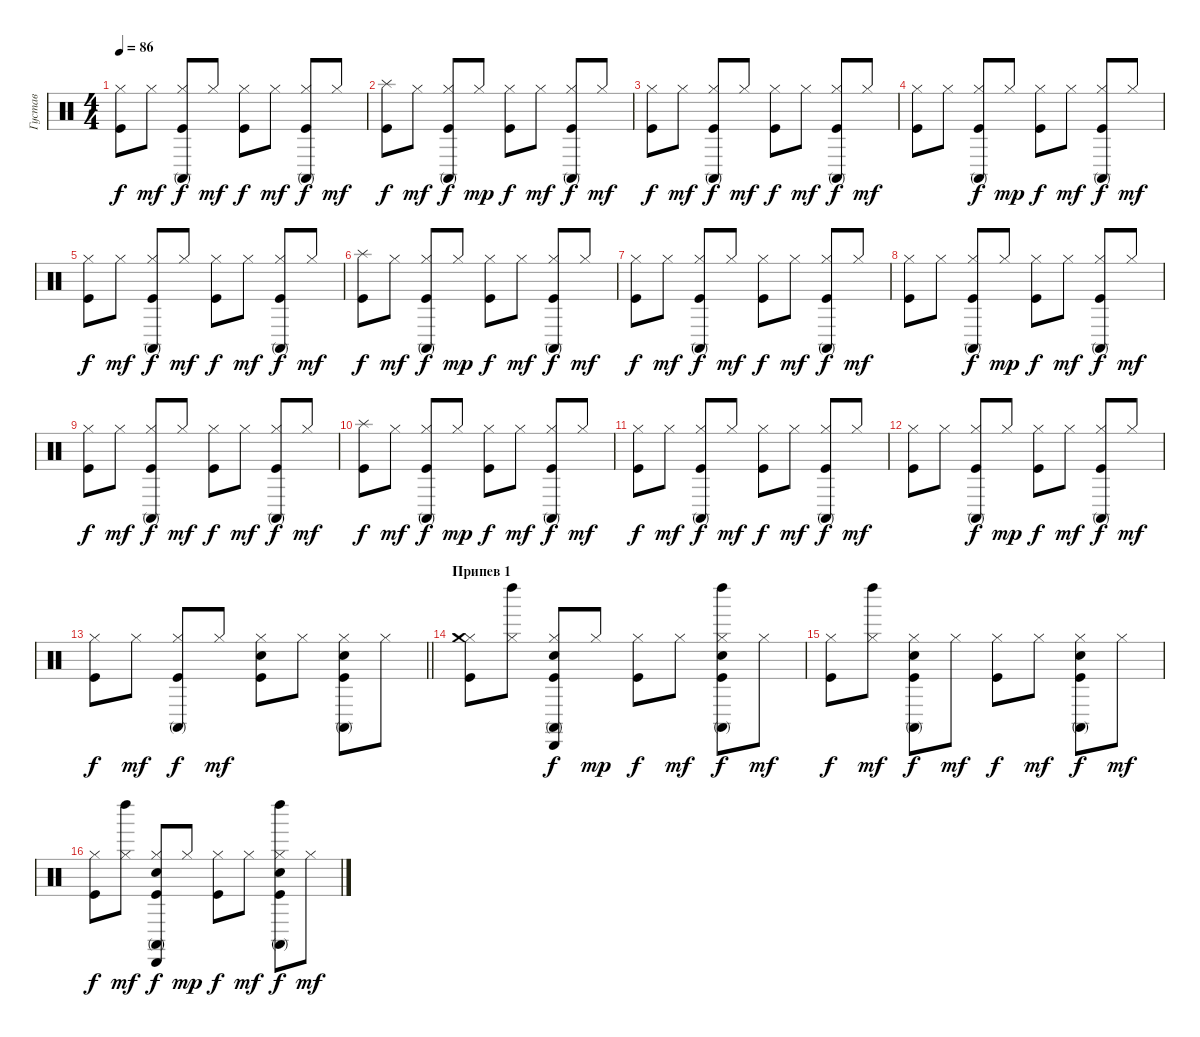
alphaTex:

\track ("Густав" "Густав") {instrument percussion}
\staff {score}
\articulation defaults
\ts (4 4)
\tempo 86
\clef neutral
\ks c
("Hi-Hat (closed)" "Kick (hit)").8{dy f} "Hi-Hat (closed)".8{dy mf} ("Conga high (mute)" "Hi-Hat (closed)" "Kick (hit)").8{dy f} "Hi-Hat (closed)".8{dy mf} ("Hi-Hat (closed)" "Kick (hit)").8{dy f} "Hi-Hat (closed)".8{dy mf} ("Conga high (mute)" "Hi-Hat (closed)" "Kick (hit)").8{dy f} "Hi-Hat (closed)".8{dy mf} |
("Splash (hit)" "Kick (hit)").8{dy f} "Hi-Hat (closed)".8{dy mf} ("Conga high (mute)" "Hi-Hat (closed)" "Kick (hit)").8{dy f} "Hi-Hat (closed)".8{dy mp} ("Hi-Hat (closed)" "Kick (hit)").8{dy f} "Hi-Hat (closed)".8{dy mf} ("Conga high (mute)" "Hi-Hat (closed)" "Kick (hit)").8{dy f} "Hi-Hat (closed)".8{dy mf} |
("Hi-Hat (closed)" "Kick (hit)").8{dy f} "Hi-Hat (closed)".8{dy mf} ("Conga high (mute)" "Hi-Hat (closed)" "Kick (hit)").8{dy f} "Hi-Hat (closed)".8{dy mf} ("Hi-Hat (closed)" "Kick (hit)").8{dy f} "Hi-Hat (closed)".8{dy mf} ("Conga high (mute)" "Hi-Hat (closed)" "Kick (hit)").8{dy f} "Hi-Hat (closed)".8{dy mf} |
("Hi-Hat (closed)" "Kick (hit)").8 "Hi-Hat (closed)".8 ("Conga high (mute)" "Hi-Hat (closed)" "Kick (hit)").8{dy f} "Hi-Hat (closed)".8{dy mp} ("Hi-Hat (closed)" "Kick (hit)").8{dy f} "Hi-Hat (closed)".8{dy mf} ("Conga high (mute)" "Hi-Hat (closed)" "Kick (hit)").8{dy f} "Hi-Hat (closed)".8{dy mf} |
("Hi-Hat (closed)" "Kick (hit)").8{dy f} "Hi-Hat (closed)".8{dy mf} ("Conga high (mute)" "Hi-Hat (closed)" "Kick (hit)").8{dy f} "Hi-Hat (closed)".8{dy mf} ("Hi-Hat (closed)" "Kick (hit)").8{dy f} "Hi-Hat (closed)".8{dy mf} ("Conga high (mute)" "Hi-Hat (closed)" "Kick (hit)").8{dy f} "Hi-Hat (closed)".8{dy mf} |
("Splash (hit)" "Kick (hit)").8{dy f} "Hi-Hat (closed)".8{dy mf} ("Conga high (mute)" "Hi-Hat (closed)" "Kick (hit)").8{dy f} "Hi-Hat (closed)".8{dy mp} ("Hi-Hat (closed)" "Kick (hit)").8{dy f} "Hi-Hat (closed)".8{dy mf} ("Conga high (mute)" "Hi-Hat (closed)" "Kick (hit)").8{dy f} "Hi-Hat (closed)".8{dy mf} |
("Hi-Hat (closed)" "Kick (hit)").8{dy f} "Hi-Hat (closed)".8{dy mf} ("Conga high (mute)" "Hi-Hat (closed)" "Kick (hit)").8{dy f} "Hi-Hat (closed)".8{dy mf} ("Hi-Hat (closed)" "Kick (hit)").8{dy f} "Hi-Hat (closed)".8{dy mf} ("Conga high (mute)" "Hi-Hat (closed)" "Kick (hit)").8{dy f} "Hi-Hat (closed)".8{dy mf} |
("Hi-Hat (closed)" "Kick (hit)").8 "Hi-Hat (closed)".8 ("Conga high (mute)" "Hi-Hat (closed)" "Kick (hit)").8{dy f} "Hi-Hat (closed)".8{dy mp} ("Hi-Hat (closed)" "Kick (hit)").8{dy f} "Hi-Hat (closed)".8{dy mf} ("Conga high (mute)" "Hi-Hat (closed)" "Kick (hit)").8{dy f} "Hi-Hat (closed)".8{dy mf} |
("Hi-Hat (closed)" "Kick (hit)").8{dy f} "Hi-Hat (closed)".8{dy mf} ("Conga high (mute)" "Hi-Hat (closed)" "Kick (hit)").8{dy f} "Hi-Hat (closed)".8{dy mf} ("Hi-Hat (closed)" "Kick (hit)").8{dy f} "Hi-Hat (closed)".8{dy mf} ("Conga high (mute)" "Hi-Hat (closed)" "Kick (hit)").8{dy f} "Hi-Hat (closed)".8{dy mf} |
("Splash (hit)" "Kick (hit)").8{dy f} "Hi-Hat (closed)".8{dy mf} ("Conga high (mute)" "Hi-Hat (closed)" "Kick (hit)").8{dy f} "Hi-Hat (closed)".8{dy mp} ("Hi-Hat (closed)" "Kick (hit)").8{dy f} "Hi-Hat (closed)".8{dy mf} ("Conga high (mute)" "Hi-Hat (closed)" "Kick (hit)").8{dy f} "Hi-Hat (closed)".8{dy mf} |
("Hi-Hat (closed)" "Kick (hit)").8{dy f} "Hi-Hat (closed)".8{dy mf} ("Conga high (mute)" "Hi-Hat (closed)" "Kick (hit)").8{dy f} "Hi-Hat (closed)".8{dy mf} ("Hi-Hat (closed)" "Kick (hit)").8{dy f} "Hi-Hat (closed)".8{dy mf} ("Conga high (mute)" "Hi-Hat (closed)" "Kick (hit)").8{dy f} "Hi-Hat (closed)".8{dy mf} |
("Hi-Hat (closed)" "Kick (hit)").8 "Hi-Hat (closed)".8 ("Conga high (mute)" "Hi-Hat (closed)" "Kick (hit)").8{dy f} "Hi-Hat (closed)".8{dy mp} ("Hi-Hat (closed)" "Kick (hit)").8{dy f} "Hi-Hat (closed)".8{dy mf} ("Conga high (mute)" "Hi-Hat (closed)" "Kick (hit)").8{dy f} "Hi-Hat (closed)".8{dy mf} |
\barLineRight lightlight
("Hi-Hat (closed)" "Kick (hit)").8{dy f} "Hi-Hat (closed)".8{dy mf} ("Conga high (mute)" "Hi-Hat (closed)" "Kick (hit)").8{dy f} "Hi-Hat (closed)".8{dy mf} ("Hi-Hat (closed)" "Kick (hit)" "Snare (hit) 2").8 "Hi-Hat (closed)".8 ("Snare (hit) 2" "Conga high (mute)" "Hi-Hat (closed)" "Kick (hit)").8 "Hi-Hat (closed)".8 |
\section ("" "Припев 1")
("Hi-Hat (closed)" "Crash medium (hit)" "Kick (hit)").8 ("Hi-Hat (closed)" "Left Maraca (hit)").8 ("Cabasa (hit)" "Snare (hit) 2" "Conga high (mute)" "Hi-Hat (closed)" "Kick (hit)").8{dy f} "Hi-Hat (closed)".8{dy mp} ("Hi-Hat (closed)" "Kick (hit)").8{dy f} "Hi-Hat (closed)".8{dy mf} ("Left Maraca (hit)" "Snare (hit) 2" "Conga high (mute)" "Hi-Hat (closed)" "Kick (hit)").8{dy f} "Hi-Hat (closed)".8{dy mf} |
("Hi-Hat (closed)" "Kick (hit)").8{dy f} ("Hi-Hat (closed)" "Left Maraca (hit)").8{dy mf} ("Snare (hit) 2" "Conga high (mute)" "Hi-Hat (closed)" "Kick (hit)").8{dy f} "Hi-Hat (closed)".8{dy mf} ("Hi-Hat (closed)" "Kick (hit)").8{dy f} "Hi-Hat (closed)".8{dy mf} ("Snare (hit) 2" "Conga high (mute)" "Hi-Hat (closed)" "Kick (hit)").8{dy f} "Hi-Hat (closed)".8{dy mf} |
("Hi-Hat (closed)" "Kick (hit)").8{dy f} ("Hi-Hat (closed)" "Left Maraca (hit)").8{dy mf} ("Cabasa (hit)" "Snare (hit) 2" "Conga high (mute)" "Hi-Hat (closed)" "Kick (hit)").8{dy f} "Hi-Hat (closed)".8{dy mp} ("Hi-Hat (closed)" "Kick (hit)").8{dy f} "Hi-Hat (closed)".8{dy mf} ("Left Maraca (hit)" "Snare (hit) 2" "Conga high (mute)" "Hi-Hat (closed)" "Kick (hit)").8{dy f} "Hi-Hat (closed)".8{dy mf}
